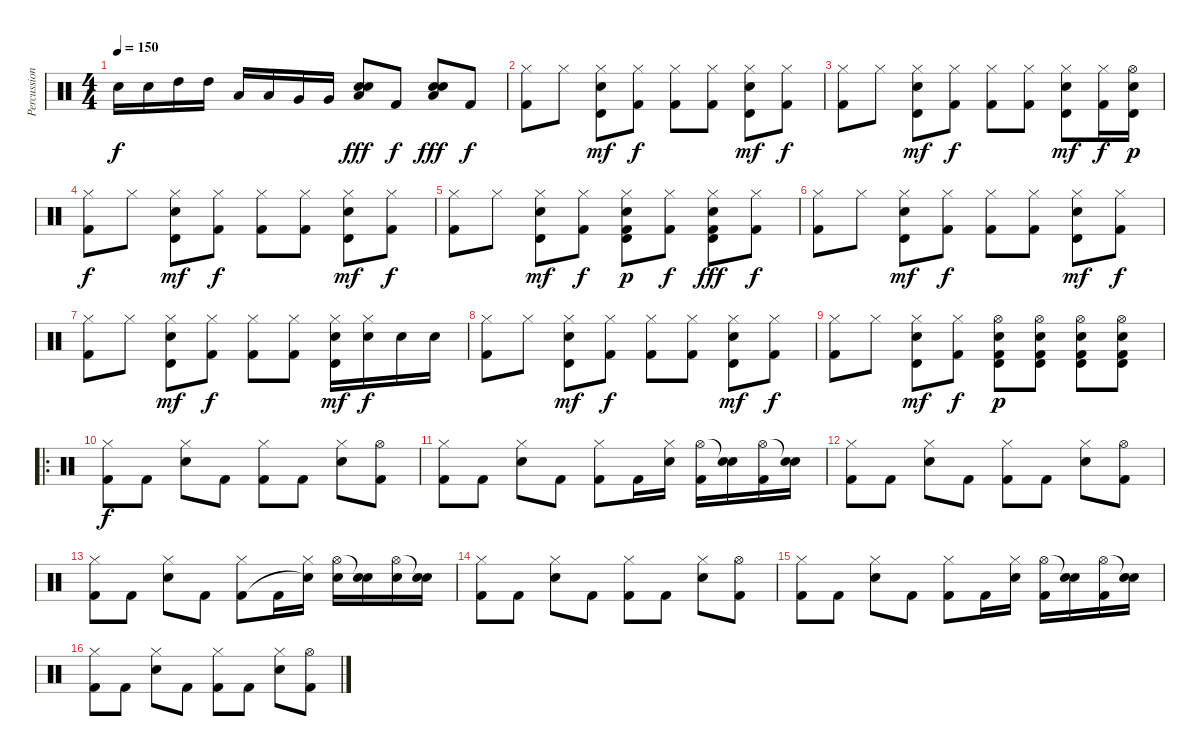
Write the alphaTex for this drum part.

\track ("Percussions" "Percussion") {instrument percussion}
\staff {score}
\articulation defaults
\ts (4 4)
\tempo 150
\clef neutral
\ks c "Snare (hit) 2".16{dy f} "Snare (hit) 2".16 "High Tom (hit)".16 "High Tom (hit)".16 "Low Tom (hit)".16 "Low Tom (hit)".16 "Very Low Tom (hit)".16 "Very Low Tom (hit)".16
("Low Floor Tom (hit)" "Snare (hit) 2" "Electric Snare (hit)").8{dy fff} "Kick (hit) 2".8{dy f} ("Low Floor Tom (hit)" "Snare (hit) 2" "Electric Snare (hit)").8{dy fff} "Kick (hit) 2".8{dy f} |
("Hi-Hat (closed)" "Kick (hit) 2").8 "Hi-Hat (closed)".8 ("Hi-Hat (closed)" "Snare (hit) 2" "Timbale high (hit)").8{dy mf} ("Hi-Hat (closed)" "Kick (hit) 2").8{dy f} ("Hi-Hat (closed)" "Kick (hit) 2").8 ("Hi-Hat (closed)" "Kick (hit) 2").8 ("Hi-Hat (closed)" "Snare (hit) 2" "Timbale high (hit)").8{dy mf} ("Hi-Hat (closed)" "Kick (hit) 2").8{dy f} |
("Hi-Hat (closed)" "Kick (hit) 2").8 "Hi-Hat (closed)".8 ("Hi-Hat (closed)" "Snare (hit) 2" "Timbale high (hit)").8{dy mf} ("Hi-Hat (closed)" "Kick (hit) 2").8{dy f} ("Hi-Hat (closed)" "Kick (hit) 2").8 ("Hi-Hat (closed)" "Kick (hit) 2").8 ("Hi-Hat (closed)" "Snare (hit) 2" "Timbale high (hit)").8{dy mf} ("Hi-Hat (closed)" "Kick (hit) 2").16{dy f} ("Hi-Hat (open)" "Snare (hit) 2" "Timbale high (hit)").16{dy p} |
("Hi-Hat (closed)" "Kick (hit) 2").8{dy f} "Hi-Hat (closed)".8 ("Hi-Hat (closed)" "Snare (hit) 2" "Timbale high (hit)").8{dy mf} ("Hi-Hat (closed)" "Kick (hit) 2").8{dy f} ("Hi-Hat (closed)" "Kick (hit) 2").8 ("Hi-Hat (closed)" "Kick (hit) 2").8 ("Hi-Hat (closed)" "Snare (hit) 2" "Timbale high (hit)").8{dy mf} ("Hi-Hat (closed)" "Kick (hit) 2").8{dy f} |
("Hi-Hat (closed)" "Kick (hit) 2").8 "Hi-Hat (closed)".8 ("Hi-Hat (closed)" "Snare (hit) 2" "Timbale high (hit)").8{dy mf} ("Hi-Hat (closed)" "Kick (hit) 2").8{dy f} ("Hi-Hat (closed)" "Timbale high (hit)" "Snare (hit) 2" "Kick (hit) 2").8{dy p} ("Hi-Hat (closed)" "Kick (hit) 2").8{dy f} ("Hi-Hat (closed)" "Timbale high (hit)" "Snare (hit) 2" "Kick (hit) 2").8{dy fff} ("Hi-Hat (closed)" "Kick (hit) 2").8{dy f} |
("Hi-Hat (closed)" "Kick (hit) 2").8 "Hi-Hat (closed)".8 ("Hi-Hat (closed)" "Snare (hit) 2" "Timbale high (hit)").8{dy mf} ("Hi-Hat (closed)" "Kick (hit) 2").8{dy f} ("Hi-Hat (closed)" "Kick (hit) 2").8 ("Hi-Hat (closed)" "Kick (hit) 2").8 ("Hi-Hat (closed)" "Snare (hit) 2" "Timbale high (hit)").8{dy mf} ("Hi-Hat (closed)" "Kick (hit) 2").8{dy f} |
("Hi-Hat (closed)" "Kick (hit) 2").8 "Hi-Hat (closed)".8 ("Hi-Hat (closed)" "Snare (hit) 2" "Timbale high (hit)").8{dy mf} ("Hi-Hat (closed)" "Kick (hit) 2").8{dy f} ("Hi-Hat (closed)" "Kick (hit) 2").8 ("Hi-Hat (closed)" "Kick (hit) 2").8 ("Hi-Hat (closed)" "Snare (hit) 2" "Timbale high (hit)").16{dy mf} ("Hi-Hat (closed)" "Snare (hit) 2").16{dy f} "Snare (hit) 2".16 "Snare (hit) 2".16 |
("Hi-Hat (closed)" "Kick (hit) 2").8 "Hi-Hat (closed)".8 ("Hi-Hat (closed)" "Snare (hit) 2" "Timbale high (hit)").8{dy mf} ("Hi-Hat (closed)" "Kick (hit) 2").8{dy f} ("Hi-Hat (closed)" "Kick (hit) 2").8 ("Hi-Hat (closed)" "Kick (hit) 2").8 ("Hi-Hat (closed)" "Snare (hit) 2" "Timbale high (hit)").8{dy mf} ("Hi-Hat (closed)" "Kick (hit) 2").8{dy f} |
("Hi-Hat (closed)" "Kick (hit) 2").8 "Hi-Hat (closed)".8 ("Hi-Hat (closed)" "Snare (hit) 2" "Timbale high (hit)").8{dy mf} ("Hi-Hat (closed)" "Kick (hit) 2").8{dy f} ("Hi-Hat (open)" "Kick (hit) 2" "Snare (hit) 2" "Timbale high (hit)").8{dy p} ("Hi-Hat (open)" "Kick (hit) 2" "Snare (hit) 2" "Timbale high (hit)").8 ("Hi-Hat (open)" "Kick (hit) 2" "Snare (hit) 2" "Timbale high (hit)").8 ("Hi-Hat (open)" "Kick (hit) 2" "Snare (hit) 2" "Timbale high (hit)").8 |
\ro
("Hi-Hat (closed)" "Kick (hit) 2").8{dy f} "Kick (hit) 2".8 ("Hi-Hat (closed)" "Snare (hit) 2").8 "Kick (hit) 2".8 ("Hi-Hat (closed)" "Kick (hit) 2").8 "Kick (hit) 2".8 ("Hi-Hat (closed)" "Snare (hit) 2").8 ("Hi-Hat (open)" "Kick (hit) 2").8 |
("Hi-Hat (closed)" "Kick (hit) 2").8 "Kick (hit) 2".8 ("Hi-Hat (closed)" "Snare (hit) 2").8 "Kick (hit) 2".8 ("Hi-Hat (closed)" "Kick (hit) 2").8 "Kick (hit) 2".16 ("Hi-Hat (closed)" "Snare (hit) 2").16 ("Hi-Hat (open)" "Kick (hit) 2").16 ("Snare (hit)"{t} "Snare (hit) 2").16 ("Hi-Hat (open)" "Kick (hit) 2").16 ("Snare (hit)"{t} "Snare (hit) 2").16 |
("Hi-Hat (closed)" "Kick (hit) 2").8 "Kick (hit) 2".8 ("Hi-Hat (closed)" "Snare (hit) 2").8 "Kick (hit) 2".8 ("Hi-Hat (closed)" "Kick (hit) 2").8 "Kick (hit) 2".8 ("Hi-Hat (closed)" "Snare (hit) 2").8 ("Hi-Hat (open)" "Kick (hit) 2").8 |
("Hi-Hat (closed)" "Kick (hit) 2").8 "Kick (hit) 2".8 ("Hi-Hat (closed)" "Snare (hit) 2").8 "Kick (hit) 2".8 ("Hi-Hat (closed)" "Kick (hit) 2").8 "Kick (hit) 2".16 ("Hi-Hat (closed)" "Snare (hit) 2"{t}).16 ("Hi-Hat (open)" "Snare (hit) 2").16 ("Snare (hit)"{t} "Snare (hit) 2").16 ("Hi-Hat (open)" "Snare (hit) 2").16 ("Snare (hit)"{t} "Snare (hit) 2").16 |
("Hi-Hat (closed)" "Kick (hit) 2").8 "Kick (hit) 2".8 ("Hi-Hat (closed)" "Snare (hit) 2").8 "Kick (hit) 2".8 ("Hi-Hat (closed)" "Kick (hit) 2").8 "Kick (hit) 2".8 ("Hi-Hat (closed)" "Snare (hit) 2").8 ("Hi-Hat (open)" "Kick (hit) 2").8 |
("Hi-Hat (closed)" "Kick (hit) 2").8 "Kick (hit) 2".8 ("Hi-Hat (closed)" "Snare (hit) 2").8 "Kick (hit) 2".8 ("Hi-Hat (closed)" "Kick (hit) 2").8 "Kick (hit) 2".16 ("Hi-Hat (closed)" "Snare (hit) 2").16 ("Hi-Hat (open)" "Kick (hit) 2").16 ("Snare (hit)"{t} "Snare (hit) 2").16 ("Hi-Hat (open)" "Kick (hit) 2").16 ("Snare (hit)"{t} "Snare (hit) 2").16 |
("Hi-Hat (closed)" "Kick (hit) 2").8 "Kick (hit) 2".8 ("Hi-Hat (closed)" "Snare (hit) 2").8 "Kick (hit) 2".8 ("Hi-Hat (closed)" "Kick (hit) 2").8 "Kick (hit) 2".8 ("Hi-Hat (closed)" "Snare (hit) 2").8 ("Hi-Hat (open)" "Kick (hit) 2").8
